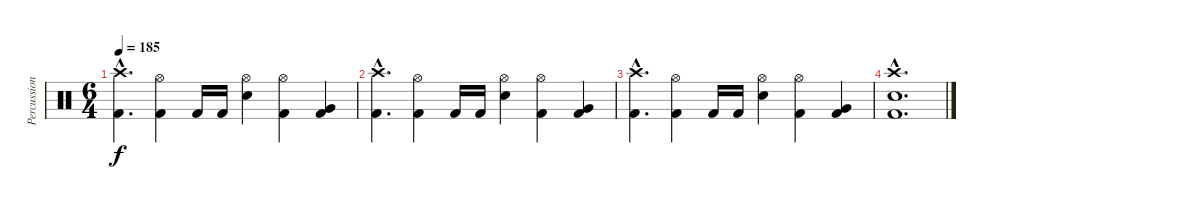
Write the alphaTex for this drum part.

\track ("Percussion" "Percussion") {instrument percussion}
\staff {score}
\articulation defaults
\ts (6 4)
\tempo 185
\clef neutral
\ks c
("Crash high (hit)"{hac} "Kick (hit) 2"{hac}).4{d dy f} ("Hi-Hat (open)" "Kick (hit) 2").4 "Kick (hit) 2".16 "Kick (hit) 2".16 ("Hi-Hat (open)" "Electric Snare (hit)").4 ("Hi-Hat (open)" "Kick (hit) 2").4 ("Very Low Tom (hit)" "Kick (hit) 2").4 |
("Crash high (hit)"{hac} "Kick (hit) 2"{hac}).4{d} ("Hi-Hat (open)" "Kick (hit) 2").4 "Kick (hit) 2".16 "Kick (hit) 2".16 ("Hi-Hat (open)" "Electric Snare (hit)").4 ("Hi-Hat (open)" "Kick (hit) 2").4 ("Very Low Tom (hit)" "Kick (hit) 2").4 |
("Crash high (hit)"{hac} "Kick (hit) 2"{hac}).4{d} ("Hi-Hat (open)" "Kick (hit) 2").4 "Kick (hit) 2".16 "Kick (hit) 2".16 ("Hi-Hat (open)" "Electric Snare (hit)").4 ("Hi-Hat (open)" "Kick (hit) 2").4 ("Very Low Tom (hit)" "Kick (hit) 2").4 |
("Crash high (hit)"{hac} "Electric Snare (hit)"{hac} "Kick (hit) 2"{hac}).1{d}
